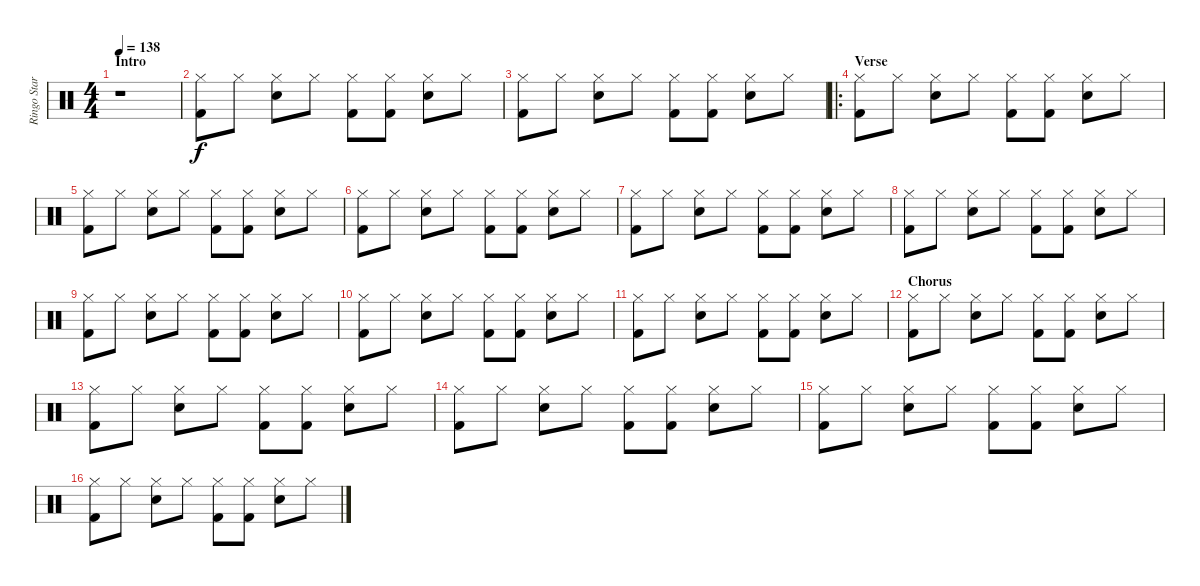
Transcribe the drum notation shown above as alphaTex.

\track ("Ringo Starr" "Ringo Star") {instrument percussion}
\staff {score}
\articulation defaults
\ts (4 4)
\section ("" "Intro")
\tempo 138
\clef neutral
\ks c
r.1{dy f} |
("Hi-Hat (closed)" "Kick (hit) 2").8 "Hi-Hat (closed)".8 ("Hi-Hat (closed)" "Electric Snare (hit)").8 "Hi-Hat (closed)".8 ("Hi-Hat (closed)" "Kick (hit) 2").8 ("Hi-Hat (closed)" "Kick (hit) 2").8 ("Hi-Hat (closed)" "Electric Snare (hit)").8 "Hi-Hat (closed)".8 |
("Hi-Hat (closed)" "Kick (hit) 2").8 "Hi-Hat (closed)".8 ("Hi-Hat (closed)" "Electric Snare (hit)").8 "Hi-Hat (closed)".8 ("Hi-Hat (closed)" "Kick (hit) 2").8 ("Hi-Hat (closed)" "Kick (hit) 2").8 ("Hi-Hat (closed)" "Electric Snare (hit)").8 "Hi-Hat (closed)".8 |
\ro
\section ("" "Verse")
("Hi-Hat (closed)" "Kick (hit) 2").8 "Hi-Hat (closed)".8 ("Hi-Hat (closed)" "Electric Snare (hit)").8 "Hi-Hat (closed)".8 ("Hi-Hat (closed)" "Kick (hit) 2").8 ("Hi-Hat (closed)" "Kick (hit) 2").8 ("Hi-Hat (closed)" "Electric Snare (hit)").8 "Hi-Hat (closed)".8 |
("Hi-Hat (closed)" "Kick (hit) 2").8 "Hi-Hat (closed)".8 ("Hi-Hat (closed)" "Electric Snare (hit)").8 "Hi-Hat (closed)".8 ("Hi-Hat (closed)" "Kick (hit) 2").8 ("Hi-Hat (closed)" "Kick (hit) 2").8 ("Hi-Hat (closed)" "Electric Snare (hit)").8 "Hi-Hat (closed)".8 |
("Hi-Hat (closed)" "Kick (hit) 2").8 "Hi-Hat (closed)".8 ("Hi-Hat (closed)" "Electric Snare (hit)").8 "Hi-Hat (closed)".8 ("Hi-Hat (closed)" "Kick (hit) 2").8 ("Hi-Hat (closed)" "Kick (hit) 2").8 ("Hi-Hat (closed)" "Electric Snare (hit)").8 "Hi-Hat (closed)".8 |
("Hi-Hat (closed)" "Kick (hit) 2").8 "Hi-Hat (closed)".8 ("Hi-Hat (closed)" "Electric Snare (hit)").8 "Hi-Hat (closed)".8 ("Hi-Hat (closed)" "Kick (hit) 2").8 ("Hi-Hat (closed)" "Kick (hit) 2").8 ("Hi-Hat (closed)" "Electric Snare (hit)").8 "Hi-Hat (closed)".8 |
("Hi-Hat (closed)" "Kick (hit) 2").8 "Hi-Hat (closed)".8 ("Hi-Hat (closed)" "Electric Snare (hit)").8 "Hi-Hat (closed)".8 ("Hi-Hat (closed)" "Kick (hit) 2").8 ("Hi-Hat (closed)" "Kick (hit) 2").8 ("Hi-Hat (closed)" "Electric Snare (hit)").8 "Hi-Hat (closed)".8 |
("Hi-Hat (closed)" "Kick (hit) 2").8 "Hi-Hat (closed)".8 ("Hi-Hat (closed)" "Electric Snare (hit)").8 "Hi-Hat (closed)".8 ("Hi-Hat (closed)" "Kick (hit) 2").8 ("Hi-Hat (closed)" "Kick (hit) 2").8 ("Hi-Hat (closed)" "Electric Snare (hit)").8 "Hi-Hat (closed)".8 |
("Hi-Hat (closed)" "Kick (hit) 2").8 "Hi-Hat (closed)".8 ("Hi-Hat (closed)" "Electric Snare (hit)").8 "Hi-Hat (closed)".8 ("Hi-Hat (closed)" "Kick (hit) 2").8 ("Hi-Hat (closed)" "Kick (hit) 2").8 ("Hi-Hat (closed)" "Electric Snare (hit)").8 "Hi-Hat (closed)".8 |
("Hi-Hat (closed)" "Kick (hit) 2").8 "Hi-Hat (closed)".8 ("Hi-Hat (closed)" "Electric Snare (hit)").8 "Hi-Hat (closed)".8 ("Hi-Hat (closed)" "Kick (hit) 2").8 ("Hi-Hat (closed)" "Kick (hit) 2").8 ("Hi-Hat (closed)" "Electric Snare (hit)").8 "Hi-Hat (closed)".8 |
\section ("" "Chorus")
("Hi-Hat (closed)" "Kick (hit) 2").8 "Hi-Hat (closed)".8 ("Hi-Hat (closed)" "Electric Snare (hit)").8 "Hi-Hat (closed)".8 ("Hi-Hat (closed)" "Kick (hit) 2").8 ("Hi-Hat (closed)" "Kick (hit) 2").8 ("Hi-Hat (closed)" "Electric Snare (hit)").8 "Hi-Hat (closed)".8 |
("Hi-Hat (closed)" "Kick (hit) 2").8 "Hi-Hat (closed)".8 ("Hi-Hat (closed)" "Electric Snare (hit)").8 "Hi-Hat (closed)".8 ("Hi-Hat (closed)" "Kick (hit) 2").8 ("Hi-Hat (closed)" "Kick (hit) 2").8 ("Hi-Hat (closed)" "Electric Snare (hit)").8 "Hi-Hat (closed)".8 |
("Hi-Hat (closed)" "Kick (hit) 2").8 "Hi-Hat (closed)".8 ("Hi-Hat (closed)" "Electric Snare (hit)").8 "Hi-Hat (closed)".8 ("Hi-Hat (closed)" "Kick (hit) 2").8 ("Hi-Hat (closed)" "Kick (hit) 2").8 ("Hi-Hat (closed)" "Electric Snare (hit)").8 "Hi-Hat (closed)".8 |
("Hi-Hat (closed)" "Kick (hit) 2").8 "Hi-Hat (closed)".8 ("Hi-Hat (closed)" "Electric Snare (hit)").8 "Hi-Hat (closed)".8 ("Hi-Hat (closed)" "Kick (hit) 2").8 ("Hi-Hat (closed)" "Kick (hit) 2").8 ("Hi-Hat (closed)" "Electric Snare (hit)").8 "Hi-Hat (closed)".8 |
("Hi-Hat (closed)" "Kick (hit) 2").8 "Hi-Hat (closed)".8 ("Hi-Hat (closed)" "Electric Snare (hit)").8 "Hi-Hat (closed)".8 ("Hi-Hat (closed)" "Kick (hit) 2").8 ("Hi-Hat (closed)" "Kick (hit) 2").8 ("Hi-Hat (closed)" "Electric Snare (hit)").8 "Hi-Hat (closed)".8
